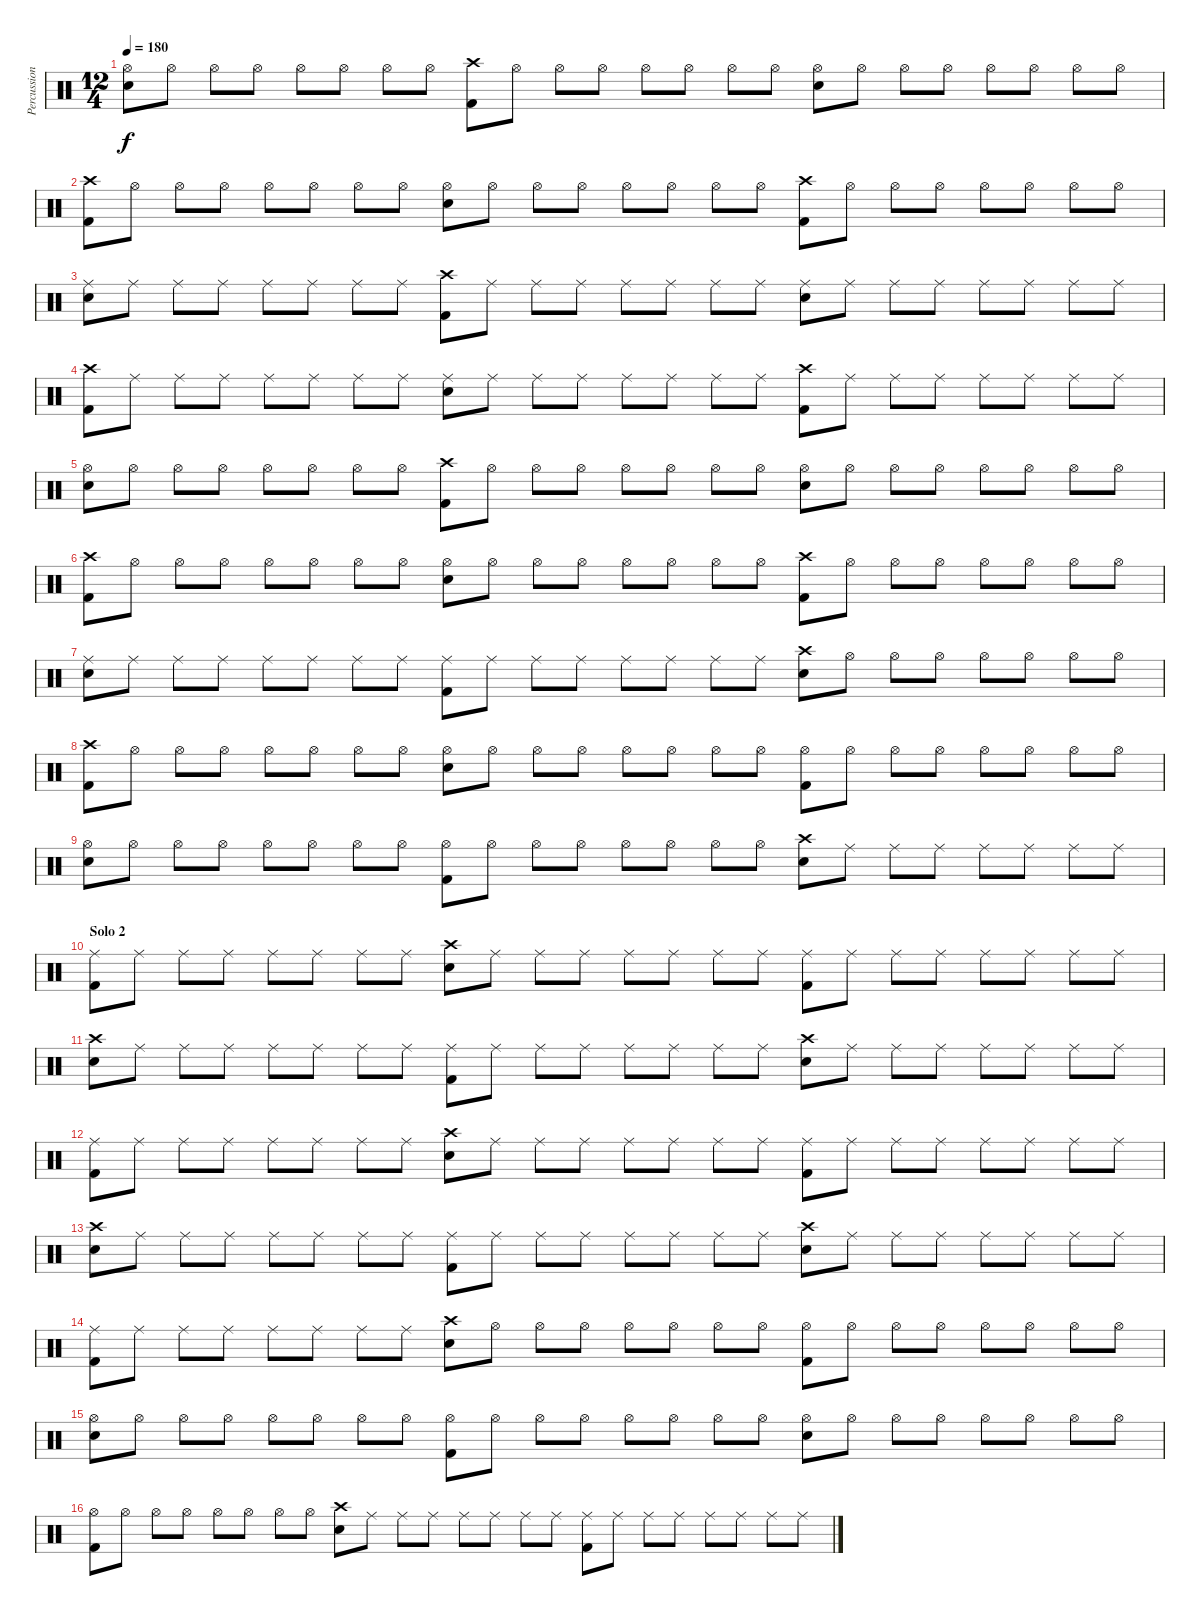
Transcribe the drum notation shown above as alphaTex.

\track ("Percussion" "Percussion") {instrument percussion}
\staff {score}
\articulation defaults
\ts (12 4)
\tempo 180
\clef neutral
\ks c
("Hi-Hat (open)" "Electric Snare (hit)").8{dy f} "Hi-Hat (open)".8 "Hi-Hat (open)".8 "Hi-Hat (open)".8 "Hi-Hat (open)".8 "Hi-Hat (open)".8 "Hi-Hat (open)".8 "Hi-Hat (open)".8 ("Crash high (hit)" "Kick (hit) 2").8 "Hi-Hat (open)".8 "Hi-Hat (open)".8 "Hi-Hat (open)".8 "Hi-Hat (open)".8 "Hi-Hat (open)".8 "Hi-Hat (open)".8 "Hi-Hat (open)".8 ("Hi-Hat (open)" "Electric Snare (hit)").8 "Hi-Hat (open)".8 "Hi-Hat (open)".8 "Hi-Hat (open)".8 "Hi-Hat (open)".8 "Hi-Hat (open)".8 "Hi-Hat (open)".8 "Hi-Hat (open)".8 |
("Crash high (hit)" "Kick (hit) 2").8 "Hi-Hat (open)".8 "Hi-Hat (open)".8 "Hi-Hat (open)".8 "Hi-Hat (open)".8 "Hi-Hat (open)".8 "Hi-Hat (open)".8 "Hi-Hat (open)".8 ("Hi-Hat (open)" "Electric Snare (hit)").8 "Hi-Hat (open)".8 "Hi-Hat (open)".8 "Hi-Hat (open)".8 "Hi-Hat (open)".8 "Hi-Hat (open)".8 "Hi-Hat (open)".8 "Hi-Hat (open)".8 ("Crash high (hit)" "Kick (hit) 2").8 "Hi-Hat (open)".8 "Hi-Hat (open)".8 "Hi-Hat (open)".8 "Hi-Hat (open)".8 "Hi-Hat (open)".8 "Hi-Hat (open)".8 "Hi-Hat (open)".8 |
("Ride (middle)" "Electric Snare (hit)").8 "Ride (middle)".8 "Ride (middle)".8 "Ride (middle)".8 "Ride (middle)".8 "Ride (middle)".8 "Ride (middle)".8 "Ride (middle)".8 ("Crash high (hit)" "Kick (hit) 2").8 "Ride (middle)".8 "Ride (middle)".8 "Ride (middle)".8 "Ride (middle)".8 "Ride (middle)".8 "Ride (middle)".8 "Ride (middle)".8 ("Ride (middle)" "Electric Snare (hit)").8 "Ride (middle)".8 "Ride (middle)".8 "Ride (middle)".8 "Ride (middle)".8 "Ride (middle)".8 "Ride (middle)".8 "Ride (middle)".8 |
("Crash high (hit)" "Kick (hit) 2").8 "Ride (middle)".8 "Ride (middle)".8 "Ride (middle)".8 "Ride (middle)".8 "Ride (middle)".8 "Ride (middle)".8 "Ride (middle)".8 ("Ride (middle)" "Electric Snare (hit)").8 "Ride (middle)".8 "Ride (middle)".8 "Ride (middle)".8 "Ride (middle)".8 "Ride (middle)".8 "Ride (middle)".8 "Ride (middle)".8 ("Crash high (hit)" "Kick (hit) 2").8 "Ride (middle)".8 "Ride (middle)".8 "Ride (middle)".8 "Ride (middle)".8 "Ride (middle)".8 "Ride (middle)".8 "Ride (middle)".8 |
("Hi-Hat (open)" "Electric Snare (hit)").8 "Hi-Hat (open)".8 "Hi-Hat (open)".8 "Hi-Hat (open)".8 "Hi-Hat (open)".8 "Hi-Hat (open)".8 "Hi-Hat (open)".8 "Hi-Hat (open)".8 ("Crash high (hit)" "Kick (hit) 2").8 "Hi-Hat (open)".8 "Hi-Hat (open)".8 "Hi-Hat (open)".8 "Hi-Hat (open)".8 "Hi-Hat (open)".8 "Hi-Hat (open)".8 "Hi-Hat (open)".8 ("Hi-Hat (open)" "Electric Snare (hit)").8 "Hi-Hat (open)".8 "Hi-Hat (open)".8 "Hi-Hat (open)".8 "Hi-Hat (open)".8 "Hi-Hat (open)".8 "Hi-Hat (open)".8 "Hi-Hat (open)".8 |
("Crash high (hit)" "Kick (hit) 2").8 "Hi-Hat (open)".8 "Hi-Hat (open)".8 "Hi-Hat (open)".8 "Hi-Hat (open)".8 "Hi-Hat (open)".8 "Hi-Hat (open)".8 "Hi-Hat (open)".8 ("Hi-Hat (open)" "Electric Snare (hit)").8 "Hi-Hat (open)".8 "Hi-Hat (open)".8 "Hi-Hat (open)".8 "Hi-Hat (open)".8 "Hi-Hat (open)".8 "Hi-Hat (open)".8 "Hi-Hat (open)".8 ("Crash high (hit)" "Kick (hit) 2").8 "Hi-Hat (open)".8 "Hi-Hat (open)".8 "Hi-Hat (open)".8 "Hi-Hat (open)".8 "Hi-Hat (open)".8 "Hi-Hat (open)".8 "Hi-Hat (open)".8 |
("Ride (middle)" "Electric Snare (hit)").8 "Ride (middle)".8 "Ride (middle)".8 "Ride (middle)".8 "Ride (middle)".8 "Ride (middle)".8 "Ride (middle)".8 "Ride (middle)".8 ("Ride (middle)" "Kick (hit) 2").8 "Ride (middle)".8 "Ride (middle)".8 "Ride (middle)".8 "Ride (middle)".8 "Ride (middle)".8 "Ride (middle)".8 "Ride (middle)".8 ("Crash high (hit)" "Electric Snare (hit)").8 "Hi-Hat (open)".8 "Hi-Hat (open)".8 "Hi-Hat (open)".8 "Hi-Hat (open)".8 "Hi-Hat (open)".8 "Hi-Hat (open)".8 "Hi-Hat (open)".8 |
("Crash high (hit)" "Kick (hit) 2").8 "Hi-Hat (open)".8 "Hi-Hat (open)".8 "Hi-Hat (open)".8 "Hi-Hat (open)".8 "Hi-Hat (open)".8 "Hi-Hat (open)".8 "Hi-Hat (open)".8 ("Hi-Hat (open)" "Electric Snare (hit)").8 "Hi-Hat (open)".8 "Hi-Hat (open)".8 "Hi-Hat (open)".8 "Hi-Hat (open)".8 "Hi-Hat (open)".8 "Hi-Hat (open)".8 "Hi-Hat (open)".8 ("Hi-Hat (open)" "Kick (hit) 2").8 "Hi-Hat (open)".8 "Hi-Hat (open)".8 "Hi-Hat (open)".8 "Hi-Hat (open)".8 "Hi-Hat (open)".8 "Hi-Hat (open)".8 "Hi-Hat (open)".8 |
("Hi-Hat (open)" "Electric Snare (hit)").8 "Hi-Hat (open)".8 "Hi-Hat (open)".8 "Hi-Hat (open)".8 "Hi-Hat (open)".8 "Hi-Hat (open)".8 "Hi-Hat (open)".8 "Hi-Hat (open)".8 ("Hi-Hat (open)" "Kick (hit) 2").8 "Hi-Hat (open)".8 "Hi-Hat (open)".8 "Hi-Hat (open)".8 "Hi-Hat (open)".8 "Hi-Hat (open)".8 "Hi-Hat (open)".8 "Hi-Hat (open)".8 ("Crash high (hit)" "Electric Snare (hit)").8 "Ride (middle)".8 "Ride (middle)".8 "Ride (middle)".8 "Ride (middle)".8 "Ride (middle)".8 "Ride (middle)".8 "Ride (middle)".8 |
\section ("" "Solo 2")
("Ride (middle)" "Kick (hit) 2").8 "Ride (middle)".8 "Ride (middle)".8 "Ride (middle)".8 "Ride (middle)".8 "Ride (middle)".8 "Ride (middle)".8 "Ride (middle)".8 ("Crash high (hit)" "Electric Snare (hit)").8 "Ride (middle)".8 "Ride (middle)".8 "Ride (middle)".8 "Ride (middle)".8 "Ride (middle)".8 "Ride (middle)".8 "Ride (middle)".8 ("Ride (middle)" "Kick (hit) 2").8 "Ride (middle)".8 "Ride (middle)".8 "Ride (middle)".8 "Ride (middle)".8 "Ride (middle)".8 "Ride (middle)".8 "Ride (middle)".8 |
("Crash high (hit)" "Electric Snare (hit)").8 "Ride (middle)".8 "Ride (middle)".8 "Ride (middle)".8 "Ride (middle)".8 "Ride (middle)".8 "Ride (middle)".8 "Ride (middle)".8 ("Ride (middle)" "Kick (hit) 2").8 "Ride (middle)".8 "Ride (middle)".8 "Ride (middle)".8 "Ride (middle)".8 "Ride (middle)".8 "Ride (middle)".8 "Ride (middle)".8 ("Crash high (hit)" "Electric Snare (hit)").8 "Ride (middle)".8 "Ride (middle)".8 "Ride (middle)".8 "Ride (middle)".8 "Ride (middle)".8 "Ride (middle)".8 "Ride (middle)".8 |
("Ride (middle)" "Kick (hit) 2").8 "Ride (middle)".8 "Ride (middle)".8 "Ride (middle)".8 "Ride (middle)".8 "Ride (middle)".8 "Ride (middle)".8 "Ride (middle)".8 ("Crash high (hit)" "Electric Snare (hit)").8 "Ride (middle)".8 "Ride (middle)".8 "Ride (middle)".8 "Ride (middle)".8 "Ride (middle)".8 "Ride (middle)".8 "Ride (middle)".8 ("Ride (middle)" "Kick (hit) 2").8 "Ride (middle)".8 "Ride (middle)".8 "Ride (middle)".8 "Ride (middle)".8 "Ride (middle)".8 "Ride (middle)".8 "Ride (middle)".8 |
("Crash high (hit)" "Electric Snare (hit)").8 "Ride (middle)".8 "Ride (middle)".8 "Ride (middle)".8 "Ride (middle)".8 "Ride (middle)".8 "Ride (middle)".8 "Ride (middle)".8 ("Ride (middle)" "Kick (hit) 2").8 "Ride (middle)".8 "Ride (middle)".8 "Ride (middle)".8 "Ride (middle)".8 "Ride (middle)".8 "Ride (middle)".8 "Ride (middle)".8 ("Crash high (hit)" "Electric Snare (hit)").8 "Ride (middle)".8 "Ride (middle)".8 "Ride (middle)".8 "Ride (middle)".8 "Ride (middle)".8 "Ride (middle)".8 "Ride (middle)".8 |
("Ride (middle)" "Kick (hit) 2").8 "Ride (middle)".8 "Ride (middle)".8 "Ride (middle)".8 "Ride (middle)".8 "Ride (middle)".8 "Ride (middle)".8 "Ride (middle)".8 ("Crash high (hit)" "Electric Snare (hit)").8 "Hi-Hat (open)".8 "Hi-Hat (open)".8 "Hi-Hat (open)".8 "Hi-Hat (open)".8 "Hi-Hat (open)".8 "Hi-Hat (open)".8 "Hi-Hat (open)".8 ("Hi-Hat (open)" "Kick (hit) 2").8 "Hi-Hat (open)".8 "Hi-Hat (open)".8 "Hi-Hat (open)".8 "Hi-Hat (open)".8 "Hi-Hat (open)".8 "Hi-Hat (open)".8 "Hi-Hat (open)".8 |
("Hi-Hat (open)" "Electric Snare (hit)").8 "Hi-Hat (open)".8 "Hi-Hat (open)".8 "Hi-Hat (open)".8 "Hi-Hat (open)".8 "Hi-Hat (open)".8 "Hi-Hat (open)".8 "Hi-Hat (open)".8 ("Hi-Hat (open)" "Kick (hit) 2").8 "Hi-Hat (open)".8 "Hi-Hat (open)".8 "Hi-Hat (open)".8 "Hi-Hat (open)".8 "Hi-Hat (open)".8 "Hi-Hat (open)".8 "Hi-Hat (open)".8 ("Hi-Hat (open)" "Electric Snare (hit)").8 "Hi-Hat (open)".8 "Hi-Hat (open)".8 "Hi-Hat (open)".8 "Hi-Hat (open)".8 "Hi-Hat (open)".8 "Hi-Hat (open)".8 "Hi-Hat (open)".8 |
("Hi-Hat (open)" "Kick (hit) 2").8 "Hi-Hat (open)".8 "Hi-Hat (open)".8 "Hi-Hat (open)".8 "Hi-Hat (open)".8 "Hi-Hat (open)".8 "Hi-Hat (open)".8 "Hi-Hat (open)".8 ("Crash high (hit)" "Electric Snare (hit)").8 "Ride (middle)".8 "Ride (middle)".8 "Ride (middle)".8 "Ride (middle)".8 "Ride (middle)".8 "Ride (middle)".8 "Ride (middle)".8 ("Ride (middle)" "Kick (hit) 2").8 "Ride (middle)".8 "Ride (middle)".8 "Ride (middle)".8 "Ride (middle)".8 "Ride (middle)".8 "Ride (middle)".8 "Ride (middle)".8
